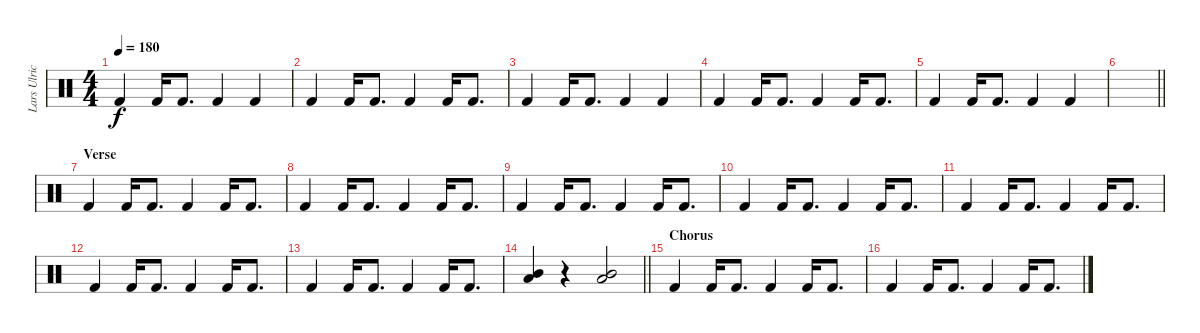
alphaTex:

\track ("Lars Ulrich" "Lars Ulric") {instrument percussion}
\staff {score}
\articulation defaults
\ts (4 4)
\tempo 180
\clef neutral
\ks c "Kick (hit) 2".4{dy f} "Kick (hit) 2".16 "Kick (hit) 2".8{d} "Kick (hit) 2".4 "Kick (hit) 2".4
|
"Kick (hit) 2".4 "Kick (hit) 2".16 "Kick (hit) 2".8{d} "Kick (hit) 2".4 "Kick (hit) 2".16 "Kick (hit) 2".8{d} |
"Kick (hit) 2".4 "Kick (hit) 2".16 "Kick (hit) 2".8{d} "Kick (hit) 2".4 "Kick (hit) 2".4 |
"Kick (hit) 2".4 "Kick (hit) 2".16 "Kick (hit) 2".8{d} "Kick (hit) 2".4 "Kick (hit) 2".16 "Kick (hit) 2".8{d} |
"Kick (hit) 2".4 "Kick (hit) 2".16 "Kick (hit) 2".8{d} "Kick (hit) 2".4 "Kick (hit) 2".4 |
\barLineRight lightlight
|
\section ("" "Verse")
"Kick (hit) 2".4 "Kick (hit) 2".16 "Kick (hit) 2".8{d} "Kick (hit) 2".4 "Kick (hit) 2".16 "Kick (hit) 2".8{d} |
"Kick (hit) 2".4 "Kick (hit) 2".16 "Kick (hit) 2".8{d} "Kick (hit) 2".4 "Kick (hit) 2".16 "Kick (hit) 2".8{d} |
"Kick (hit) 2".4 "Kick (hit) 2".16 "Kick (hit) 2".8{d} "Kick (hit) 2".4 "Kick (hit) 2".16 "Kick (hit) 2".8{d} |
"Kick (hit) 2".4 "Kick (hit) 2".16 "Kick (hit) 2".8{d} "Kick (hit) 2".4 "Kick (hit) 2".16 "Kick (hit) 2".8{d} |
"Kick (hit) 2".4 "Kick (hit) 2".16 "Kick (hit) 2".8{d} "Kick (hit) 2".4 "Kick (hit) 2".16 "Kick (hit) 2".8{d} |
"Kick (hit) 2".4 "Kick (hit) 2".16 "Kick (hit) 2".8{d} "Kick (hit) 2".4 "Kick (hit) 2".16 "Kick (hit) 2".8{d} |
"Kick (hit) 2".4 "Kick (hit) 2".16 "Kick (hit) 2".8{d} "Kick (hit) 2".4 "Kick (hit) 2".16 "Kick (hit) 2".8{d} |
\barLineRight lightlight
("Mid Tom (hit)" "Low Tom (hit)").4 r.4 ("Mid Tom (hit)" "Low Tom (hit)").2 |
\section ("" "Chorus")
"Kick (hit) 2".4 "Kick (hit) 2".16 "Kick (hit) 2".8{d} "Kick (hit) 2".4 "Kick (hit) 2".16 "Kick (hit) 2".8{d} |
"Kick (hit) 2".4 "Kick (hit) 2".16 "Kick (hit) 2".8{d} "Kick (hit) 2".4 "Kick (hit) 2".16 "Kick (hit) 2".8{d}
